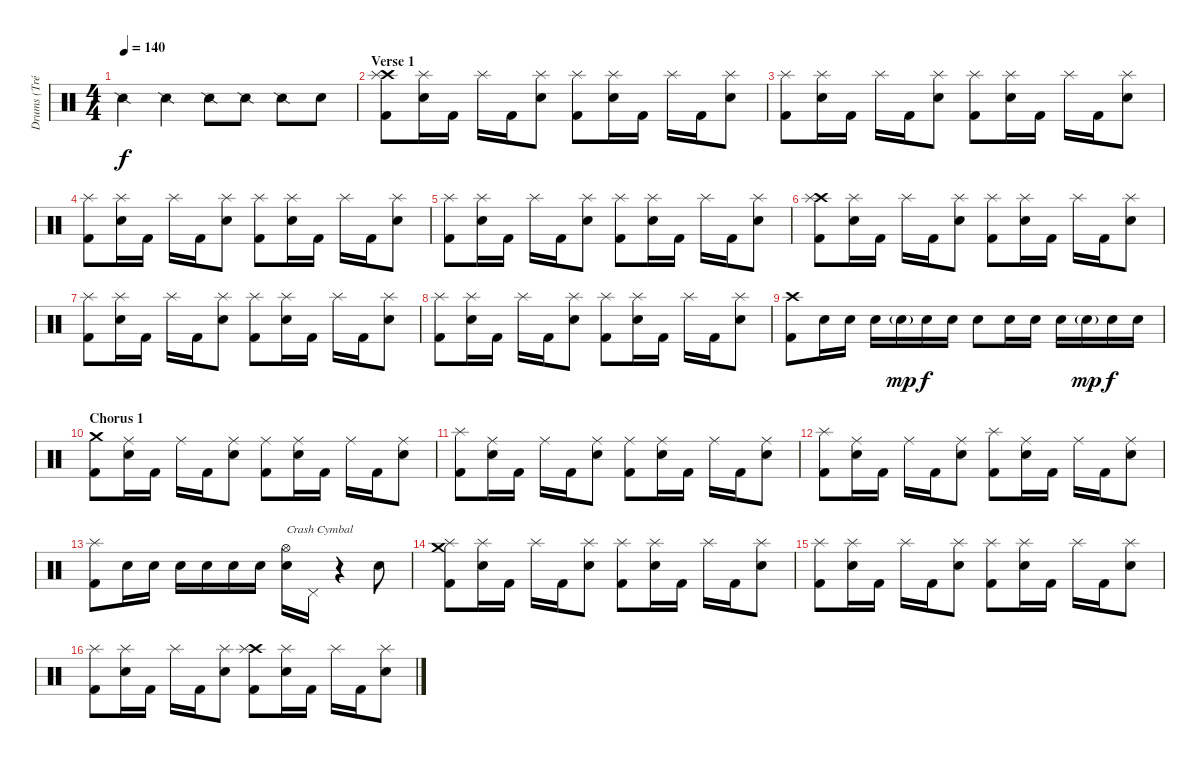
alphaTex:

\track ("Drums (Tré)" "Drums (Tré") {instrument percussion}
\staff {score}
\articulation defaults
\ts (4 4)
\tempo 140
\clef neutral
\ks c "Snare (side stick) 2".4{dy f} "Snare (side stick) 2".4 "Snare (side stick) 2".8 "Snare (side stick) 2".8 "Snare (side stick) 2".8 "Electric Snare (hit)".8
|
\section ("" "Verse 1")
("Crash high (hit)" "Splash (hit)" "Kick (hit) 2").8 ("Splash (hit)" "Electric Snare (hit)").16 "Kick (hit) 2".16 "Splash (hit)".16 "Kick (hit) 2".16 ("Splash (hit)" "Electric Snare (hit)").8 ("Splash (hit)" "Kick (hit) 2").8 ("Splash (hit)" "Electric Snare (hit)").16 "Kick (hit) 2".16 "Splash (hit)".16 "Kick (hit) 2".16 ("Splash (hit)" "Electric Snare (hit)").8 |
("Splash (hit)" "Kick (hit) 2").8 ("Splash (hit)" "Electric Snare (hit)").16 "Kick (hit) 2".16 "Splash (hit)".16 "Kick (hit) 2".16 ("Splash (hit)" "Electric Snare (hit)").8 ("Splash (hit)" "Kick (hit) 2").8 ("Splash (hit)" "Electric Snare (hit)").16 "Kick (hit) 2".16 "Splash (hit)".16 "Kick (hit) 2".16 ("Splash (hit)" "Electric Snare (hit)").8 |
("Splash (hit)" "Kick (hit) 2").8 ("Splash (hit)" "Electric Snare (hit)").16 "Kick (hit) 2".16 "Splash (hit)".16 "Kick (hit) 2".16 ("Splash (hit)" "Electric Snare (hit)").8 ("Splash (hit)" "Kick (hit) 2").8 ("Splash (hit)" "Electric Snare (hit)").16 "Kick (hit) 2".16 "Splash (hit)".16 "Kick (hit) 2".16 ("Splash (hit)" "Electric Snare (hit)").8 |
("Splash (hit)" "Kick (hit) 2").8 ("Splash (hit)" "Electric Snare (hit)").16 "Kick (hit) 2".16 "Splash (hit)".16 "Kick (hit) 2".16 ("Splash (hit)" "Electric Snare (hit)").8 ("Splash (hit)" "Kick (hit) 2").8 ("Splash (hit)" "Electric Snare (hit)").16 "Kick (hit) 2".16 "Splash (hit)".16 "Kick (hit) 2".16 ("Splash (hit)" "Electric Snare (hit)").8 |
("Crash high (hit)" "Splash (hit)" "Kick (hit) 2").8 ("Splash (hit)" "Electric Snare (hit)").16 "Kick (hit) 2".16 "Splash (hit)".16 "Kick (hit) 2".16 ("Splash (hit)" "Electric Snare (hit)").8 ("Splash (hit)" "Kick (hit) 2").8 ("Splash (hit)" "Electric Snare (hit)").16 "Kick (hit) 2".16 "Splash (hit)".16 "Kick (hit) 2".16 ("Splash (hit)" "Electric Snare (hit)").8 |
("Splash (hit)" "Kick (hit) 2").8 ("Splash (hit)" "Electric Snare (hit)").16 "Kick (hit) 2".16 "Splash (hit)".16 "Kick (hit) 2".16 ("Splash (hit)" "Electric Snare (hit)").8 ("Splash (hit)" "Kick (hit) 2").8 ("Splash (hit)" "Electric Snare (hit)").16 "Kick (hit) 2".16 "Splash (hit)".16 "Kick (hit) 2".16 ("Splash (hit)" "Electric Snare (hit)").8 |
("Splash (hit)" "Kick (hit) 2").8 ("Splash (hit)" "Electric Snare (hit)").16 "Kick (hit) 2".16 "Splash (hit)".16 "Kick (hit) 2".16 ("Splash (hit)" "Electric Snare (hit)").8 ("Splash (hit)" "Kick (hit) 2").8 ("Splash (hit)" "Electric Snare (hit)").16 "Kick (hit) 2".16 "Splash (hit)".16 "Kick (hit) 2".16 ("Splash (hit)" "Electric Snare (hit)").8 |
("Crash high (hit)" "Kick (hit) 2").8 "Electric Snare (hit)".16 "Electric Snare (hit)".16 "Electric Snare (hit)".16 "Electric Snare (hit)"{g}.16{dy mp} "Electric Snare (hit)".16{dy f} "Electric Snare (hit)".16 "Electric Snare (hit)".8 "Electric Snare (hit)".16 "Electric Snare (hit)".16 "Electric Snare (hit)".16 "Electric Snare (hit)"{g}.16{dy mp} "Electric Snare (hit)".16{dy f} "Electric Snare (hit)".16 |
\section ("" "Chorus 1")
("Crash medium (hit)" "Kick (hit) 2").8 ("Ride (middle)" "Electric Snare (hit)").16 "Kick (hit) 2".16 "Ride (middle)".16 "Kick (hit) 2".16 ("Ride (middle)" "Electric Snare (hit)").8 ("Ride (middle)" "Kick (hit) 2").8 ("Ride (middle)" "Electric Snare (hit)").16 "Kick (hit) 2".16 "Ride (middle)".16 "Kick (hit) 2".16 ("Ride (middle)" "Electric Snare (hit)").8 |
("Splash (hit)" "Kick (hit) 2").8 ("Ride (middle)" "Electric Snare (hit)").16 "Kick (hit) 2".16 "Ride (middle)".16 "Kick (hit) 2".16 ("Ride (middle)" "Electric Snare (hit)").8 ("Ride (middle)" "Kick (hit) 2").8 ("Ride (middle)" "Electric Snare (hit)").16 "Kick (hit) 2".16 "Ride (middle)".16 "Kick (hit) 2".16 ("Ride (middle)" "Electric Snare (hit)").8 |
("Splash (hit)" "Kick (hit) 2").8 ("Ride (middle)" "Electric Snare (hit)").16 "Kick (hit) 2".16 "Ride (middle)".16 "Kick (hit) 2".16 ("Ride (middle)" "Electric Snare (hit)").8 ("Splash (hit)" "Kick (hit) 2").8 ("Ride (middle)" "Electric Snare (hit)").16 "Kick (hit) 2".16 "Ride (middle)".16 "Kick (hit) 2".16 ("Ride (middle)" "Electric Snare (hit)").8 |
("Splash (hit)" "Kick (hit) 2").8 "Electric Snare (hit)".16 "Electric Snare (hit)".16 "Electric Snare (hit)".16 "Electric Snare (hit)".16 "Electric Snare (hit)".16 "Electric Snare (hit)".16 ("Hi-Hat (open)" "Electric Snare (hit)").16{txt "Crash Cymbal"} "Pedal Hi-Hat (hit)".16 r.4 "Electric Snare (hit)".8 |
("Crash medium (hit)" "Splash (hit)" "Kick (hit) 2").8 ("Splash (hit)" "Electric Snare (hit)").16 "Kick (hit) 2".16 "Splash (hit)".16 "Kick (hit) 2".16 ("Splash (hit)" "Electric Snare (hit)").8 ("Splash (hit)" "Kick (hit) 2").8 ("Splash (hit)" "Electric Snare (hit)").16 "Kick (hit) 2".16 "Splash (hit)".16 "Kick (hit) 2".16 ("Splash (hit)" "Electric Snare (hit)").8 |
("Splash (hit)" "Kick (hit) 2").8 ("Splash (hit)" "Electric Snare (hit)").16 "Kick (hit) 2".16 "Splash (hit)".16 "Kick (hit) 2".16 ("Splash (hit)" "Electric Snare (hit)").8 ("Splash (hit)" "Kick (hit) 2").8 ("Splash (hit)" "Electric Snare (hit)").16 "Kick (hit) 2".16 "Splash (hit)".16 "Kick (hit) 2".16 ("Splash (hit)" "Electric Snare (hit)").8 |
("Splash (hit)" "Kick (hit) 2").8 ("Splash (hit)" "Electric Snare (hit)").16 "Kick (hit) 2".16 "Splash (hit)".16 "Kick (hit) 2".16 ("Splash (hit)" "Electric Snare (hit)").8 ("Crash high (hit)" "Splash (hit)" "Kick (hit) 2").8 ("Splash (hit)" "Electric Snare (hit)").16 "Kick (hit) 2".16 "Splash (hit)".16 "Kick (hit) 2".16 ("Splash (hit)" "Electric Snare (hit)").8
